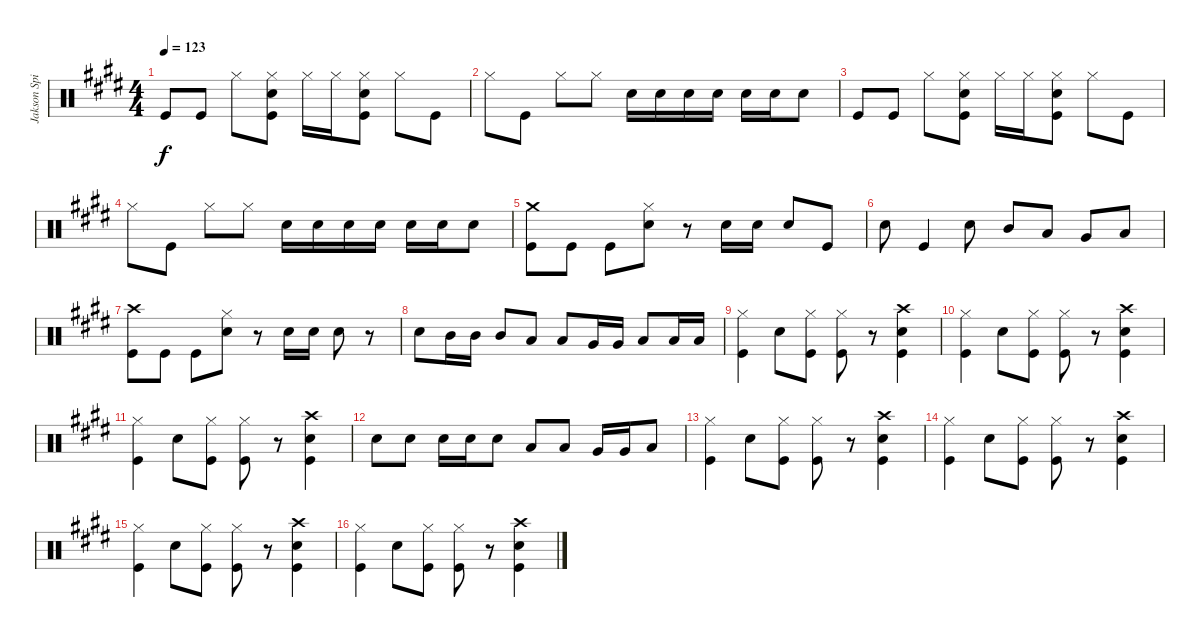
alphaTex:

\track ("Jakson Spires Drums" "Jakson Spi") {instrument percussion}
\staff {score}
\articulation defaults
\ts (4 4)
\tempo 123
\clef neutral
\ks e "Kick (hit)".8{dy f} "Kick (hit)".8 "Hi-Hat (closed)".8
("Hi-Hat (closed)" "Snare (hit) 2" "Kick (hit)").8 "Hi-Hat (closed)".16 "Hi-Hat (closed)".16 ("Hi-Hat (closed)" "Snare (hit) 2" "Kick (hit)").8 "Hi-Hat (closed)".8 "Kick (hit)".8 |
"Hi-Hat (closed)".8 "Kick (hit)".8 "Hi-Hat (closed)".8 "Hi-Hat (closed)".8 "Snare (hit) 2".16 "Snare (hit) 2".16 "Snare (hit) 2".16 "Snare (hit) 2".16 "Snare (hit) 2".16 "Snare (hit) 2".16 "Snare (hit) 2".8 |
"Kick (hit)".8 "Kick (hit)".8 "Hi-Hat (closed)".8 ("Hi-Hat (closed)" "Snare (hit) 2" "Kick (hit)").8 "Hi-Hat (closed)".16 "Hi-Hat (closed)".16 ("Hi-Hat (closed)" "Snare (hit) 2" "Kick (hit)").8 "Hi-Hat (closed)".8 "Kick (hit)".8 |
"Hi-Hat (closed)".8 "Kick (hit)".8 "Hi-Hat (closed)".8 "Hi-Hat (closed)".8 "Snare (hit) 2".16 "Snare (hit) 2".16 "Snare (hit) 2".16 "Snare (hit) 2".16 "Snare (hit) 2".16 "Snare (hit) 2".16 "Snare (hit) 2".8 |
("Crash medium (hit)" "Kick (hit)").8 "Kick (hit)".8 "Kick (hit)".8 ("Hi-Hat (closed)" "Snare (hit) 2").8 r.8 "Snare (hit) 2".16 "Snare (hit) 2".16 "Snare (hit) 2".8 "Kick (hit)".8 |
"Snare (hit) 2".8 "Kick (hit)".4 "Snare (hit) 2".8 "Mid Tom (hit)".8 "Low Tom (hit)".8 "Very Low Tom (hit)".8 "Low Floor Tom (hit)".8 |
("Crash high (hit)" "Kick (hit)").8 "Kick (hit)".8 "Kick (hit)".8 ("Hi-Hat (closed)" "Snare (hit) 2").8 r.8 "Snare (hit) 2".16 "Snare (hit) 2".16 "Snare (hit) 2".8 r.8 |
"Snare (hit) 2".8 "Mid Tom (hit)".16 "Mid Tom (hit)".16 "Mid Tom (hit)".8 "Low Tom (hit)".8 "Low Tom (hit)".8 "Very Low Tom (hit)".16 "Very Low Tom (hit)".16 "Low Floor Tom (hit)".8 "Low Floor Tom (hit)".16 "Low Floor Tom (hit)".16 |
("Hi-Hat (closed)" "Kick (hit)").4 "Snare (hit) 2".8 ("Hi-Hat (closed)" "Kick (hit)").8 ("Hi-Hat (closed)" "Kick (hit)").8 r.8 ("Crash high (hit)" "Snare (hit) 2" "Kick (hit)").4 |
("Hi-Hat (closed)" "Kick (hit)").4 "Snare (hit) 2".8 ("Hi-Hat (closed)" "Kick (hit)").8 ("Hi-Hat (closed)" "Kick (hit)").8 r.8 ("Crash high (hit)" "Snare (hit) 2" "Kick (hit)").4 |
("Hi-Hat (closed)" "Kick (hit)").4 "Snare (hit) 2".8 ("Hi-Hat (closed)" "Kick (hit)").8 ("Hi-Hat (closed)" "Kick (hit)").8 r.8 ("Crash high (hit)" "Snare (hit) 2" "Kick (hit)").4 |
"Snare (hit) 2".8 "Snare (hit) 2".8 "Snare (hit) 2".16 "Snare (hit) 2".16 "Snare (hit) 2".8 "Low Tom (hit)".8 "Low Tom (hit)".8 "Very Low Tom (hit)".16 "Very Low Tom (hit)".16 "Low Floor Tom (hit)".8 |
("Hi-Hat (closed)" "Kick (hit)").4 "Snare (hit) 2".8 ("Hi-Hat (closed)" "Kick (hit)").8 ("Hi-Hat (closed)" "Kick (hit)").8 r.8 ("Crash high (hit)" "Snare (hit) 2" "Kick (hit)").4 |
("Hi-Hat (closed)" "Kick (hit)").4 "Snare (hit) 2".8 ("Hi-Hat (closed)" "Kick (hit)").8 ("Hi-Hat (closed)" "Kick (hit)").8 r.8 ("Crash high (hit)" "Snare (hit) 2" "Kick (hit)").4 |
("Hi-Hat (closed)" "Kick (hit)").4 "Snare (hit) 2".8 ("Hi-Hat (closed)" "Kick (hit)").8 ("Hi-Hat (closed)" "Kick (hit)").8 r.8 ("Crash high (hit)" "Snare (hit) 2" "Kick (hit)").4 |
("Hi-Hat (closed)" "Kick (hit)").4 "Snare (hit) 2".8 ("Hi-Hat (closed)" "Kick (hit)").8 ("Hi-Hat (closed)" "Kick (hit)").8 r.8 ("Crash high (hit)" "Snare (hit) 2" "Kick (hit)").4
